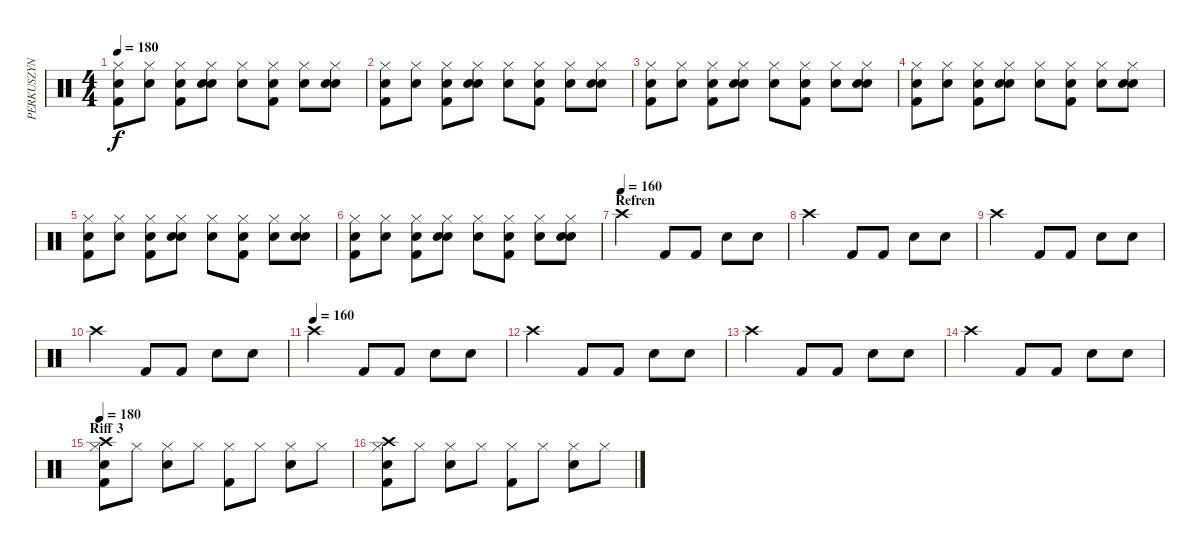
\track ("PERKUSZYN" "PERKUSZYN") {instrument percussion}
\staff {score}
\articulation defaults
\ts (4 4)
\tempo 180
\clef neutral
\ks c
("Snare (hit)" "Kick (hit) 2" "Hi-Hat (closed)").8{dy f} ("Snare (hit)" "Hi-Hat (closed)").8 ("Snare (hit)" "Kick (hit) 2" "Hi-Hat (closed)").8 ("Snare (hit)" "Snare (hit) 2" "Hi-Hat (closed)").8 ("Snare (hit)" "Hi-Hat (closed)").8 ("Snare (hit)" "Kick (hit) 2" "Hi-Hat (closed)").8 ("Snare (hit)" "Hi-Hat (closed)").8 ("Snare (hit)" "Snare (hit) 2" "Hi-Hat (closed)").8 |
("Snare (hit)" "Kick (hit) 2" "Hi-Hat (closed)").8 ("Snare (hit)" "Hi-Hat (closed)").8 ("Snare (hit)" "Kick (hit) 2" "Hi-Hat (closed)").8 ("Snare (hit)" "Snare (hit) 2" "Hi-Hat (closed)").8 ("Snare (hit)" "Hi-Hat (closed)").8 ("Snare (hit)" "Kick (hit) 2" "Hi-Hat (closed)").8 ("Snare (hit)" "Hi-Hat (closed)").8 ("Snare (hit)" "Snare (hit) 2" "Hi-Hat (closed)").8 |
("Snare (hit)" "Kick (hit) 2" "Hi-Hat (closed)").8 ("Snare (hit)" "Hi-Hat (closed)").8 ("Snare (hit)" "Kick (hit) 2" "Hi-Hat (closed)").8 ("Snare (hit)" "Snare (hit) 2" "Hi-Hat (closed)").8 ("Snare (hit)" "Hi-Hat (closed)").8 ("Snare (hit)" "Kick (hit) 2" "Hi-Hat (closed)").8 ("Snare (hit)" "Hi-Hat (closed)").8 ("Snare (hit)" "Snare (hit) 2" "Hi-Hat (closed)").8 |
("Snare (hit)" "Kick (hit) 2" "Hi-Hat (closed)").8 ("Snare (hit)" "Hi-Hat (closed)").8 ("Snare (hit)" "Kick (hit) 2" "Hi-Hat (closed)").8 ("Snare (hit)" "Snare (hit) 2" "Hi-Hat (closed)").8 ("Snare (hit)" "Hi-Hat (closed)").8 ("Snare (hit)" "Kick (hit) 2" "Hi-Hat (closed)").8 ("Snare (hit)" "Hi-Hat (closed)").8 ("Snare (hit)" "Snare (hit) 2" "Hi-Hat (closed)").8 |
("Snare (hit)" "Kick (hit) 2" "Hi-Hat (closed)").8 ("Snare (hit)" "Hi-Hat (closed)").8 ("Snare (hit)" "Kick (hit) 2" "Hi-Hat (closed)").8 ("Snare (hit)" "Snare (hit) 2" "Hi-Hat (closed)").8 ("Snare (hit)" "Hi-Hat (closed)").8 ("Snare (hit)" "Kick (hit) 2" "Hi-Hat (closed)").8 ("Snare (hit)" "Hi-Hat (closed)").8 ("Snare (hit)" "Snare (hit) 2" "Hi-Hat (closed)").8 |
("Snare (hit)" "Kick (hit) 2" "Hi-Hat (closed)").8 ("Snare (hit)" "Hi-Hat (closed)").8 ("Snare (hit)" "Kick (hit) 2" "Hi-Hat (closed)").8 ("Snare (hit)" "Snare (hit) 2" "Hi-Hat (closed)").8 ("Snare (hit)" "Hi-Hat (closed)").8 ("Snare (hit)" "Kick (hit) 2" "Hi-Hat (closed)").8 ("Snare (hit)" "Hi-Hat (closed)").8 ("Snare (hit)" "Snare (hit) 2" "Hi-Hat (closed)").8 |
\section ("" "Refren")
\tempo (160)
"Crash high (hit)".2 "Kick (hit) 2".8 "Kick (hit) 2".8 "Snare (hit) 2".8 "Snare (hit) 2".8 |
"Crash high (hit)".2 "Kick (hit) 2".8 "Kick (hit) 2".8 "Snare (hit) 2".8 "Snare (hit) 2".8 |
"Crash high (hit)".2 "Kick (hit) 2".8 "Kick (hit) 2".8 "Snare (hit) 2".8 "Snare (hit) 2".8 |
"Crash high (hit)".2 "Kick (hit) 2".8 "Kick (hit) 2".8 "Snare (hit) 2".8 "Snare (hit) 2".8 |
\tempo (160)
"Crash high (hit)".2 "Kick (hit) 2".8 "Kick (hit) 2".8 "Snare (hit) 2".8 "Snare (hit) 2".8 |
"Crash high (hit)".2 "Kick (hit) 2".8 "Kick (hit) 2".8 "Snare (hit) 2".8 "Snare (hit) 2".8 |
"Crash high (hit)".2 "Kick (hit) 2".8 "Kick (hit) 2".8 "Snare (hit) 2".8 "Snare (hit) 2".8 |
"Crash high (hit)".2 "Kick (hit) 2".8 "Kick (hit) 2".8 "Snare (hit) 2".8 "Snare (hit) 2".8 |
\section ("" "Riff 3")
\tempo 180
("Kick (hit) 2" "Snare (hit) 2" "Hi-Hat (closed)" "Crash high (hit)").8 "Hi-Hat (closed)".8 ("Snare (hit) 2" "Hi-Hat (closed)").8 "Hi-Hat (closed)".8 ("Kick (hit) 2" "Hi-Hat (closed)").8 "Hi-Hat (closed)".8 ("Snare (hit) 2" "Hi-Hat (closed)").8 "Hi-Hat (closed)".8 |
("Kick (hit) 2" "Snare (hit) 2" "Hi-Hat (closed)" "Crash high (hit)").8 "Hi-Hat (closed)".8 ("Snare (hit) 2" "Hi-Hat (closed)").8 "Hi-Hat (closed)".8 ("Kick (hit) 2" "Hi-Hat (closed)").8 "Hi-Hat (closed)".8 ("Snare (hit) 2" "Hi-Hat (closed)").8 "Hi-Hat (closed)".8
